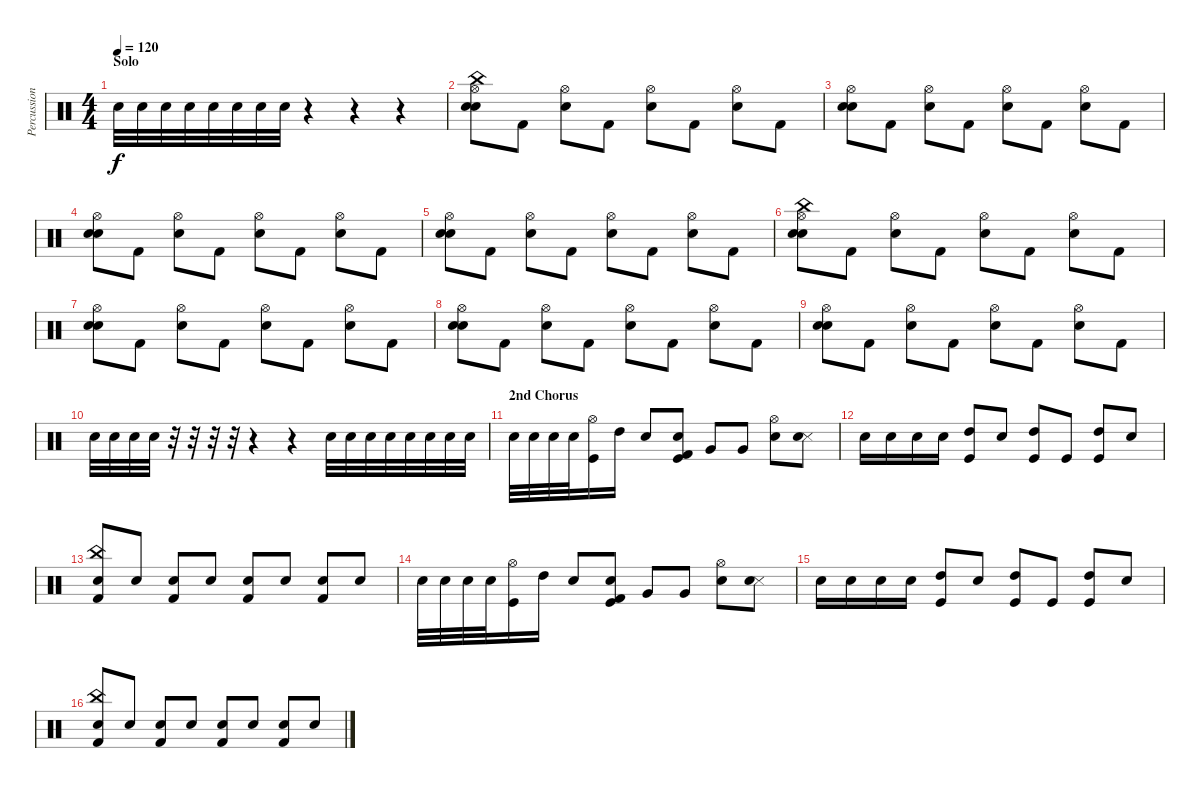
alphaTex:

\track ("Percussion" "Percussion") {instrument percussion}
\staff {score}
\articulation defaults
\ts (4 4)
\section ("" "Solo")
\tempo 120
\clef neutral
\ks c "Electric Snare (hit)".32{dy f} "Electric Snare (hit)".32 "Electric Snare (hit)".32 "Electric Snare (hit)".32 "Electric Snare (hit)".32 "Electric Snare (hit)".32 "Electric Snare (hit)".32 "Electric Snare (hit)".32
r.4 r.4 r.4 |
("Snare (hit) 2" "China (hit)" "Hi-Hat (open)" "Electric Snare (hit)").8{volume 9} "Kick (hit) 2".8 ("Hi-Hat (open)" "Electric Snare (hit)").8 "Kick (hit) 2".8 ("Hi-Hat (open)" "Electric Snare (hit)").8 "Kick (hit) 2".8 ("Hi-Hat (open)" "Electric Snare (hit)").8 "Kick (hit) 2".8 |
("Snare (hit) 2" "Hi-Hat (open)" "Electric Snare (hit)").8 "Kick (hit) 2".8 ("Hi-Hat (open)" "Electric Snare (hit)").8 "Kick (hit) 2".8 ("Hi-Hat (open)" "Electric Snare (hit)").8 "Kick (hit) 2".8 ("Hi-Hat (open)" "Electric Snare (hit)").8 "Kick (hit) 2".8 |
("Snare (hit) 2" "Hi-Hat (open)" "Electric Snare (hit)").8 "Kick (hit) 2".8 ("Hi-Hat (open)" "Electric Snare (hit)").8 "Kick (hit) 2".8 ("Hi-Hat (open)" "Electric Snare (hit)").8 "Kick (hit) 2".8 ("Hi-Hat (open)" "Electric Snare (hit)").8 "Kick (hit) 2".8 |
("Snare (hit) 2" "Hi-Hat (open)" "Electric Snare (hit)").8 "Kick (hit) 2".8 ("Hi-Hat (open)" "Electric Snare (hit)").8 "Kick (hit) 2".8 ("Hi-Hat (open)" "Electric Snare (hit)").8 "Kick (hit) 2".8 ("Hi-Hat (open)" "Electric Snare (hit)").8 "Kick (hit) 2".8 |
("Snare (hit) 2" "China (hit)" "Hi-Hat (open)" "Electric Snare (hit)").8 "Kick (hit) 2".8 ("Hi-Hat (open)" "Electric Snare (hit)").8 "Kick (hit) 2".8 ("Hi-Hat (open)" "Electric Snare (hit)").8 "Kick (hit) 2".8 ("Hi-Hat (open)" "Electric Snare (hit)").8 "Kick (hit) 2".8 |
("Snare (hit) 2" "Hi-Hat (open)" "Electric Snare (hit)").8 "Kick (hit) 2".8 ("Hi-Hat (open)" "Electric Snare (hit)").8 "Kick (hit) 2".8 ("Hi-Hat (open)" "Electric Snare (hit)").8 "Kick (hit) 2".8 ("Hi-Hat (open)" "Electric Snare (hit)").8 "Kick (hit) 2".8 |
("Snare (hit) 2" "Hi-Hat (open)" "Electric Snare (hit)").8 "Kick (hit) 2".8 ("Hi-Hat (open)" "Electric Snare (hit)").8 "Kick (hit) 2".8 ("Hi-Hat (open)" "Electric Snare (hit)").8 "Kick (hit) 2".8 ("Hi-Hat (open)" "Electric Snare (hit)").8 "Kick (hit) 2".8 |
("Snare (hit) 2" "Hi-Hat (open)" "Electric Snare (hit)").8 "Kick (hit) 2".8 ("Hi-Hat (open)" "Electric Snare (hit)").8 "Kick (hit) 2".8 ("Hi-Hat (open)" "Electric Snare (hit)").8 "Kick (hit) 2".8 ("Hi-Hat (open)" "Electric Snare (hit)").8 "Kick (hit) 2".8 |
"Electric Snare (hit)".32 "Electric Snare (hit)".32 "Electric Snare (hit)".32 "Electric Snare (hit)".32 r.32 r.32 r.32 r.32 r.4 r.4 "Electric Snare (hit)".32 "Electric Snare (hit)".32 "Electric Snare (hit)".32 "Electric Snare (hit)".32 "Electric Snare (hit)".32 "Electric Snare (hit)".32 "Electric Snare (hit)".32 "Electric Snare (hit)".32 |
\section ("" "2nd Chorus")
"Electric Snare (hit)".32{volume 13} "Electric Snare (hit)".32 "Electric Snare (hit)".32 "Electric Snare (hit)".32 ("Kick (hit)" "Hi-Hat (open)").16 "High Tom (hit)".16 "Electric Snare (hit)".8 ("Kick (hit)" "Kick (hit) 2" "Electric Snare (hit)").8 "Very Low Tom (hit)".8 "Very Low Tom (hit)".8 ("Hi-Hat (open)" "Snare (hit) 2").8 ("Snare (side stick) 3" "Snare (hit) 2").8 |
"Electric Snare (hit)".16 "Electric Snare (hit)".16 "Electric Snare (hit)".16 "Electric Snare (hit)".16 ("High Tom (hit)" "Kick (hit)").8 "Electric Snare (hit)".8 ("High Tom (hit)" "Kick (hit)").8 "Kick (hit)".8 ("High Tom (hit)" "Kick (hit)").8 "Electric Snare (hit)".8 |
("China (hit)" "Kick (hit) 2" "Electric Snare (hit)").8 "Electric Snare (hit)".8 ("Kick (hit) 2" "Electric Snare (hit)").8 "Electric Snare (hit)".8 ("Kick (hit) 2" "Electric Snare (hit)").8 "Electric Snare (hit)".8 ("Kick (hit) 2" "Electric Snare (hit)").8 "Electric Snare (hit)".8 |
"Electric Snare (hit)".32 "Electric Snare (hit)".32 "Electric Snare (hit)".32 "Electric Snare (hit)".32 ("Kick (hit)" "Hi-Hat (open)").16 "High Tom (hit)".16 "Electric Snare (hit)".8 ("Kick (hit)" "Kick (hit) 2" "Electric Snare (hit)").8 "Very Low Tom (hit)".8 "Very Low Tom (hit)".8 ("Hi-Hat (open)" "Snare (hit) 2").8 ("Snare (side stick) 3" "Snare (hit) 2").8 |
"Electric Snare (hit)".16 "Electric Snare (hit)".16 "Electric Snare (hit)".16 "Electric Snare (hit)".16 ("High Tom (hit)" "Kick (hit)").8 "Electric Snare (hit)".8 ("High Tom (hit)" "Kick (hit)").8 "Kick (hit)".8 ("High Tom (hit)" "Kick (hit)").8 "Electric Snare (hit)".8 |
("China (hit)" "Kick (hit) 2" "Electric Snare (hit)").8 "Electric Snare (hit)".8 ("Kick (hit) 2" "Electric Snare (hit)").8 "Electric Snare (hit)".8 ("Kick (hit) 2" "Electric Snare (hit)").8 "Electric Snare (hit)".8 ("Kick (hit) 2" "Electric Snare (hit)").8 "Electric Snare (hit)".8
